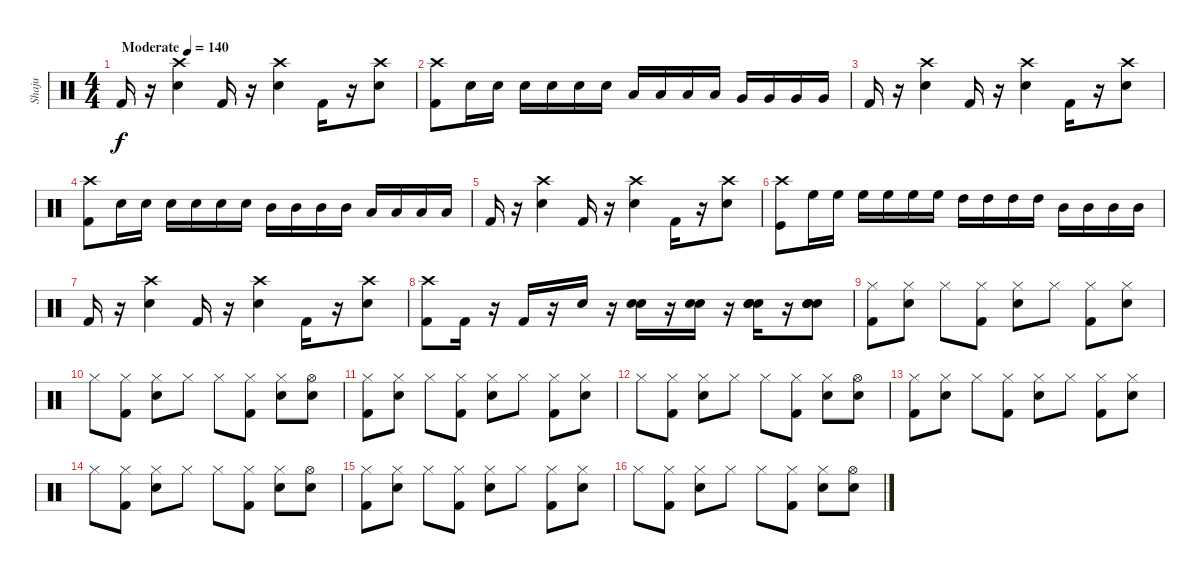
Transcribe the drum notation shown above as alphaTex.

\track ("Shaju" "Shaju") {instrument percussion}
\staff {score}
\articulation defaults
\ts (4 4)
\tempo (140 "Moderate")
\clef neutral
\ks c "Kick (hit) 2".16{dy f}
r.16 ("Crash high (hit)" "Electric Snare (hit)").4 "Kick (hit) 2".16 r.16 ("Crash high (hit)" "Electric Snare (hit)").4 "Kick (hit) 2".16 r.16 ("Electric Snare (hit)" "Crash high (hit)").8 |
("Crash high (hit)" "Kick (hit) 2").8 "Electric Snare (hit)".16 "Electric Snare (hit)".16 "Electric Snare (hit)".16 "Electric Snare (hit)".16 "Electric Snare (hit)".16 "Electric Snare (hit)".16 "Low Tom (hit)".16 "Low Tom (hit)".16 "Low Tom (hit)".16 "Low Tom (hit)".16 "Very Low Tom (hit)".16 "Very Low Tom (hit)".16 "Very Low Tom (hit)".16 "Very Low Tom (hit)".16 |
"Kick (hit) 2".16 r.16 ("Crash high (hit)" "Electric Snare (hit)").4 "Kick (hit) 2".16 r.16 ("Crash high (hit)" "Electric Snare (hit)").4 "Kick (hit) 2".16 r.16 ("Electric Snare (hit)" "Crash high (hit)").8 |
("Crash high (hit)" "Kick (hit) 2").8 "Electric Snare (hit)".16 "Electric Snare (hit)".16 "Electric Snare (hit)".16 "Electric Snare (hit)".16 "Electric Snare (hit)".16 "Electric Snare (hit)".16 "Mid Tom (hit)".16 "Mid Tom (hit)".16 "Mid Tom (hit)".16 "Mid Tom (hit)".16 "Low Tom (hit)".16 "Low Tom (hit)".16 "Low Tom (hit)".16 "Low Tom (hit)".16 |
"Kick (hit) 2".16 r.16 ("Crash high (hit)" "Electric Snare (hit)").4 "Kick (hit) 2".16 r.16 ("Crash high (hit)" "Electric Snare (hit)").4 "Kick (hit) 2".16 r.16 ("Electric Snare (hit)" "Crash high (hit)").8 |
("Crash high (hit)" "Kick (hit)").8 "High Floor Tom (hit)".16 "High Floor Tom (hit)".16 "High Floor Tom (hit)".16 "High Floor Tom (hit)".16 "High Floor Tom (hit)".16 "High Floor Tom (hit)".16 "High Tom (hit)".16 "High Tom (hit)".16 "High Tom (hit)".16 "High Tom (hit)".16 "Mid Tom (hit)".16 "Mid Tom (hit)".16 "Mid Tom (hit)".16 "Mid Tom (hit)".16 |
"Kick (hit) 2".16 r.16 ("Crash high (hit)" "Electric Snare (hit)").4 "Kick (hit) 2".16 r.16 ("Crash high (hit)" "Electric Snare (hit)").4 "Kick (hit) 2".16 r.16 ("Electric Snare (hit)" "Crash high (hit)").8 |
("Crash high (hit)" "Kick (hit) 2").8 "Kick (hit) 2".16 r.16 "Kick (hit) 2".16 r.16 "Electric Snare (hit)".16 r.16 ("Electric Snare (hit)" "Electric Snare (hit)").16 r.16 ("Electric Snare (hit)" "Electric Snare (hit)").16 r.16 ("Electric Snare (hit)" "Electric Snare (hit)" "Electric Snare (hit)" "Electric Snare (hit)").16 r.16 ("Electric Snare (hit)" "Electric Snare (hit)" "Electric Snare (hit)" "Electric Snare (hit)").8 |
("Kick (hit) 2" "Hi-Hat (closed)").8 ("Electric Snare (hit)" "Hi-Hat (closed)").8 "Hi-Hat (closed)".8 ("Kick (hit) 2" "Hi-Hat (closed)").8 ("Electric Snare (hit)" "Hi-Hat (closed)").8 "Hi-Hat (closed)".8 ("Kick (hit) 2" "Hi-Hat (closed)").8 ("Electric Snare (hit)" "Hi-Hat (closed)").8 |
"Hi-Hat (closed)".8 ("Kick (hit) 2" "Hi-Hat (closed)").8 ("Electric Snare (hit)" "Hi-Hat (closed)").8 "Hi-Hat (closed)".8 "Hi-Hat (closed)".8 ("Kick (hit) 2" "Hi-Hat (closed)").8 ("Electric Snare (hit)" "Hi-Hat (closed)").8 ("Electric Snare (hit)" "Hi-Hat (open)").8 |
("Kick (hit) 2" "Hi-Hat (closed)").8 ("Electric Snare (hit)" "Hi-Hat (closed)").8 "Hi-Hat (closed)".8 ("Kick (hit) 2" "Hi-Hat (closed)").8 ("Electric Snare (hit)" "Hi-Hat (closed)").8 "Hi-Hat (closed)".8 ("Kick (hit) 2" "Hi-Hat (closed)").8 ("Electric Snare (hit)" "Hi-Hat (closed)").8 |
"Hi-Hat (closed)".8 ("Kick (hit) 2" "Hi-Hat (closed)").8 ("Electric Snare (hit)" "Hi-Hat (closed)").8 "Hi-Hat (closed)".8 "Hi-Hat (closed)".8 ("Kick (hit) 2" "Hi-Hat (closed)").8 ("Electric Snare (hit)" "Hi-Hat (closed)").8 ("Electric Snare (hit)" "Hi-Hat (open)").8 |
("Kick (hit) 2" "Hi-Hat (closed)").8 ("Electric Snare (hit)" "Hi-Hat (closed)").8 "Hi-Hat (closed)".8 ("Kick (hit) 2" "Hi-Hat (closed)").8 ("Electric Snare (hit)" "Hi-Hat (closed)").8 "Hi-Hat (closed)".8 ("Kick (hit) 2" "Hi-Hat (closed)").8 ("Electric Snare (hit)" "Hi-Hat (closed)").8 |
"Hi-Hat (closed)".8 ("Kick (hit) 2" "Hi-Hat (closed)").8 ("Electric Snare (hit)" "Hi-Hat (closed)").8 "Hi-Hat (closed)".8 "Hi-Hat (closed)".8 ("Kick (hit) 2" "Hi-Hat (closed)").8 ("Electric Snare (hit)" "Hi-Hat (closed)").8 ("Electric Snare (hit)" "Hi-Hat (open)").8 |
("Kick (hit) 2" "Hi-Hat (closed)").8 ("Electric Snare (hit)" "Hi-Hat (closed)").8 "Hi-Hat (closed)".8 ("Kick (hit) 2" "Hi-Hat (closed)").8 ("Electric Snare (hit)" "Hi-Hat (closed)").8 "Hi-Hat (closed)".8 ("Kick (hit) 2" "Hi-Hat (closed)").8 ("Electric Snare (hit)" "Hi-Hat (closed)").8 |
"Hi-Hat (closed)".8 ("Kick (hit) 2" "Hi-Hat (closed)").8 ("Electric Snare (hit)" "Hi-Hat (closed)").8 "Hi-Hat (closed)".8 "Hi-Hat (closed)".8 ("Kick (hit) 2" "Hi-Hat (closed)").8 ("Electric Snare (hit)" "Hi-Hat (closed)").8 ("Electric Snare (hit)" "Hi-Hat (open)").8
